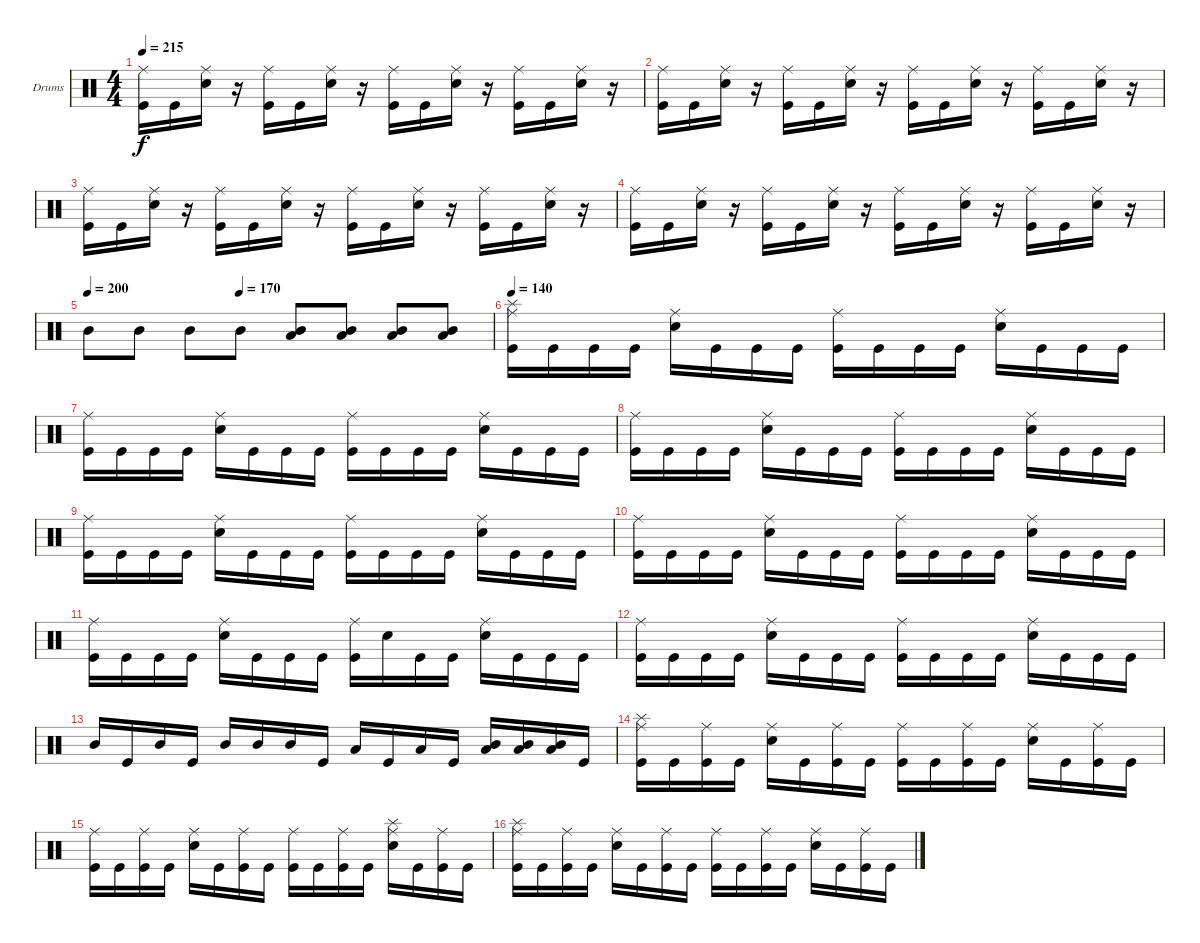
\bracketExtendMode groupsimilarinstruments
\firstSystemTrackNameOrientation horizontal
\otherSystemsTrackNameOrientation horizontal
\track ("Drumkit" "Drums") {instrument percussion}
\staff {score}
\articulation defaults
\ts (4 4)
\tempo 215
\clef neutral
\ks c
("Ride (middle)" "Kick (hit)").16{dy f} "Kick (hit)".16 ("Snare (hit) 2" "Ride (middle)").16 r.16 ("Kick (hit)" "Ride (middle)").16 "Kick (hit)".16 ("Snare (hit) 2" "Ride (middle)").16 r.16 ("Kick (hit)" "Ride (middle)").16 "Kick (hit)".16 ("Snare (hit) 2" "Ride (middle)").16 r.16 ("Kick (hit)" "Ride (middle)").16 "Kick (hit)".16 ("Snare (hit) 2" "Ride (middle)").16 r.16 |
("Ride (middle)" "Kick (hit)").16 "Kick (hit)".16 ("Snare (hit) 2" "Ride (middle)").16 r.16 ("Kick (hit)" "Ride (middle)").16 "Kick (hit)".16 ("Snare (hit) 2" "Ride (middle)").16 r.16 ("Kick (hit)" "Ride (middle)").16 "Kick (hit)".16 ("Snare (hit) 2" "Ride (middle)").16 r.16 ("Kick (hit)" "Ride (middle)").16 "Kick (hit)".16 ("Snare (hit) 2" "Ride (middle)").16 r.16 |
("Ride (middle)" "Kick (hit)").16 "Kick (hit)".16 ("Snare (hit) 2" "Ride (middle)").16 r.16 ("Kick (hit)" "Ride (middle)").16 "Kick (hit)".16 ("Snare (hit) 2" "Ride (middle)").16 r.16 ("Kick (hit)" "Ride (middle)").16 "Kick (hit)".16 ("Snare (hit) 2" "Ride (middle)").16 r.16 ("Kick (hit)" "Ride (middle)").16 "Kick (hit)".16 ("Snare (hit) 2" "Ride (middle)").16 r.16 |
("Ride (middle)" "Kick (hit)").16 "Kick (hit)".16 ("Snare (hit) 2" "Ride (middle)").16 r.16 ("Kick (hit)" "Ride (middle)").16 "Kick (hit)".16 ("Snare (hit) 2" "Ride (middle)").16 r.16 ("Kick (hit)" "Ride (middle)").16 "Kick (hit)".16 ("Snare (hit) 2" "Ride (middle)").16 r.16 ("Kick (hit)" "Ride (middle)").16 "Kick (hit)".16 ("Snare (hit) 2" "Ride (middle)").16 r.16 |
\tempo 200
\tempo (170 0.375)
"Mid Tom (hit)".8 "Mid Tom (hit)".8 "Mid Tom (hit)".8 "Mid Tom (hit)".8 ("Mid Tom (hit)" "Low Tom (hit)").8 ("Mid Tom (hit)" "Low Tom (hit)").8 ("Mid Tom (hit)" "Low Tom (hit)").8 ("Mid Tom (hit)" "Low Tom (hit)").8 |
\tempo 140
("Kick (hit)" "Ride (middle)" "Splash (hit)").16 "Kick (hit)".16 "Kick (hit)".16 "Kick (hit)".16 ("Snare (hit) 2" "Ride (middle)").16 "Kick (hit)".16 "Kick (hit)".16 "Kick (hit)".16 ("Kick (hit)" "Ride (middle)").16 "Kick (hit)".16 "Kick (hit)".16 "Kick (hit)".16 ("Snare (hit) 2" "Ride (middle)").16 "Kick (hit)".16 "Kick (hit)".16 "Kick (hit)".16 |
("Kick (hit)" "Ride (middle)").16 "Kick (hit)".16 "Kick (hit)".16 "Kick (hit)".16 ("Snare (hit) 2" "Ride (middle)").16 "Kick (hit)".16 "Kick (hit)".16 "Kick (hit)".16 ("Kick (hit)" "Ride (middle)").16 "Kick (hit)".16 "Kick (hit)".16 "Kick (hit)".16 ("Snare (hit) 2" "Ride (middle)").16 "Kick (hit)".16 "Kick (hit)".16 "Kick (hit)".16 |
("Kick (hit)" "Ride (middle)").16 "Kick (hit)".16 "Kick (hit)".16 "Kick (hit)".16 ("Snare (hit) 2" "Ride (middle)").16 "Kick (hit)".16 "Kick (hit)".16 "Kick (hit)".16 ("Kick (hit)" "Ride (middle)").16 "Kick (hit)".16 "Kick (hit)".16 "Kick (hit)".16 ("Snare (hit) 2" "Ride (middle)").16 "Kick (hit)".16 "Kick (hit)".16 "Kick (hit)".16 |
("Kick (hit)" "Ride (middle)").16 "Kick (hit)".16 "Kick (hit)".16 "Kick (hit)".16 ("Snare (hit) 2" "Ride (middle)").16 "Kick (hit)".16 "Kick (hit)".16 "Kick (hit)".16 ("Kick (hit)" "Ride (middle)").16 "Kick (hit)".16 "Kick (hit)".16 "Kick (hit)".16 ("Snare (hit) 2" "Ride (middle)").16 "Kick (hit)".16 "Kick (hit)".16 "Kick (hit)".16 |
("Kick (hit)" "Ride (middle)").16 "Kick (hit)".16 "Kick (hit)".16 "Kick (hit)".16 ("Snare (hit) 2" "Ride (middle)").16 "Kick (hit)".16 "Kick (hit)".16 "Kick (hit)".16 ("Kick (hit)" "Ride (middle)").16 "Kick (hit)".16 "Kick (hit)".16 "Kick (hit)".16 ("Snare (hit) 2" "Ride (middle)").16 "Kick (hit)".16 "Kick (hit)".16 "Kick (hit)".16 |
("Kick (hit)" "Ride (middle)").16 "Kick (hit)".16 "Kick (hit)".16 "Kick (hit)".16 ("Snare (hit) 2" "Ride (middle)").16 "Kick (hit)".16 "Kick (hit)".16 "Kick (hit)".16 ("Kick (hit)" "Ride (middle)").16 "Snare (hit) 2".16 "Kick (hit)".16 "Kick (hit)".16 ("Snare (hit) 2" "Ride (middle)").16 "Kick (hit)".16 "Kick (hit)".16 "Kick (hit)".16 |
("Kick (hit)" "Ride (middle)").16 "Kick (hit)".16 "Kick (hit)".16 "Kick (hit)".16 ("Snare (hit) 2" "Ride (middle)").16 "Kick (hit)".16 "Kick (hit)".16 "Kick (hit)".16 ("Kick (hit)" "Ride (middle)").16 "Kick (hit)".16 "Kick (hit)".16 "Kick (hit)".16 ("Snare (hit) 2" "Ride (middle)").16 "Kick (hit)".16 "Kick (hit)".16 "Kick (hit)".16 |
"Mid Tom (hit)".16 "Kick (hit)".16 "Mid Tom (hit)".16 "Kick (hit)".16 "Mid Tom (hit)".16 "Mid Tom (hit)".16 "Mid Tom (hit)".16 "Kick (hit)".16 "Low Tom (hit)".16 "Kick (hit)".16 "Low Tom (hit)".16 "Kick (hit)".16 ("Low Tom (hit)" "Mid Tom (hit)").16 ("Low Tom (hit)" "Mid Tom (hit)").16 ("Low Tom (hit)" "Mid Tom (hit)").16 "Kick (hit)".16 |
("Kick (hit)" "Ride (middle)" "Splash (hit)").16 "Kick (hit)".16 ("Kick (hit)" "Ride (middle)").16 "Kick (hit)".16 ("Snare (hit) 2" "Ride (middle)").16 "Kick (hit)".16 ("Kick (hit)" "Ride (middle)").16 "Kick (hit)".16 ("Kick (hit)" "Ride (middle)").16 "Kick (hit)".16 ("Kick (hit)" "Ride (middle)").16 "Kick (hit)".16 ("Snare (hit) 2" "Ride (middle)").16 "Kick (hit)".16 ("Kick (hit)" "Ride (middle)").16 "Kick (hit)".16 |
("Kick (hit)" "Ride (middle)").16 "Kick (hit)".16 ("Kick (hit)" "Ride (middle)").16 "Kick (hit)".16 ("Snare (hit) 2" "Ride (middle)").16 "Kick (hit)".16 ("Kick (hit)" "Ride (middle)").16 "Kick (hit)".16 ("Kick (hit)" "Ride (middle)").16 "Kick (hit)".16 ("Kick (hit)" "Ride (middle)").16 "Kick (hit)".16 ("Snare (hit) 2" "Ride (middle)" "Splash (hit)").16 "Kick (hit)".16 ("Kick (hit)" "Ride (middle)").16 "Kick (hit)".16 |
("Kick (hit)" "Ride (middle)" "Splash (hit)").16 "Kick (hit)".16 ("Kick (hit)" "Ride (middle)").16 "Kick (hit)".16 ("Snare (hit) 2" "Ride (middle)").16 "Kick (hit)".16 ("Kick (hit)" "Ride (middle)").16 "Kick (hit)".16 ("Kick (hit)" "Ride (middle)").16 "Kick (hit)".16 ("Kick (hit)" "Ride (middle)").16 "Kick (hit)".16 ("Snare (hit) 2" "Ride (middle)").16 "Kick (hit)".16 ("Kick (hit)" "Ride (middle)").16 "Kick (hit)".16
